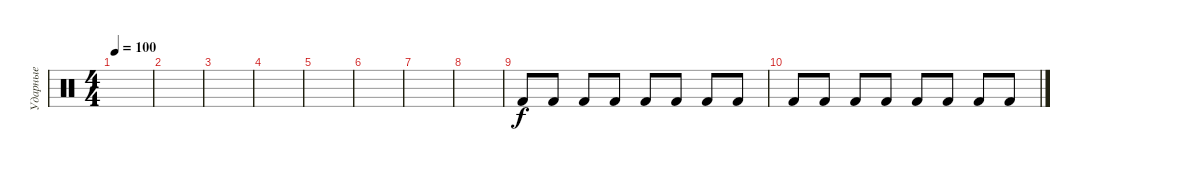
\track ("Ударные" "Ударные") {instrument percussion}
\staff {score}
\articulation defaults
\ts (4 4)
\tempo 100
\clef neutral
\ks c
|
|
|
|
|
|
|
|
"Kick (hit) 2".8 "Kick (hit) 2".8 "Kick (hit) 2".8 "Kick (hit) 2".8 "Kick (hit) 2".8 "Kick (hit) 2".8 "Kick (hit) 2".8 "Kick (hit) 2".8 |
"Kick (hit) 2".8 "Kick (hit) 2".8 "Kick (hit) 2".8 "Kick (hit) 2".8 "Kick (hit) 2".8 "Kick (hit) 2".8 "Kick (hit) 2".8 "Kick (hit) 2".8
